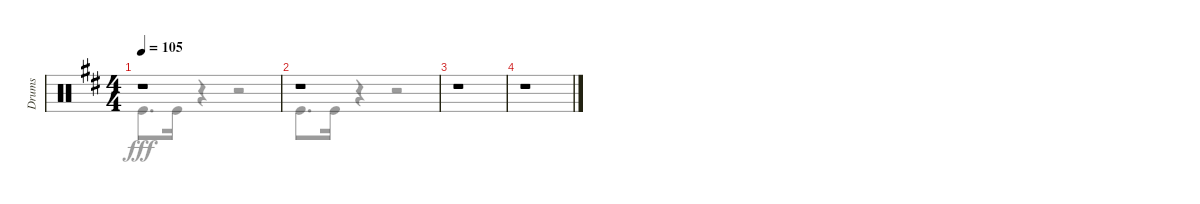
\track ("Drums" "Drums") {instrument percussion}
\staff {score}
\articulation defaults
\voice
\ts (4 4)
\tempo 105
\clef neutral
\ks d
r.1{dy f} |
r.1 |
r.1 |
r.1
\voice
\clef neutral
\ottava regular
\simile none
\ks d "Kick (hit)".8{d dy fff} "Kick (hit)".16
r.4 r.2 |
"Kick (hit)".8{d} "Kick (hit)".16 r.4 r.2 |
r.1 |
r.1
